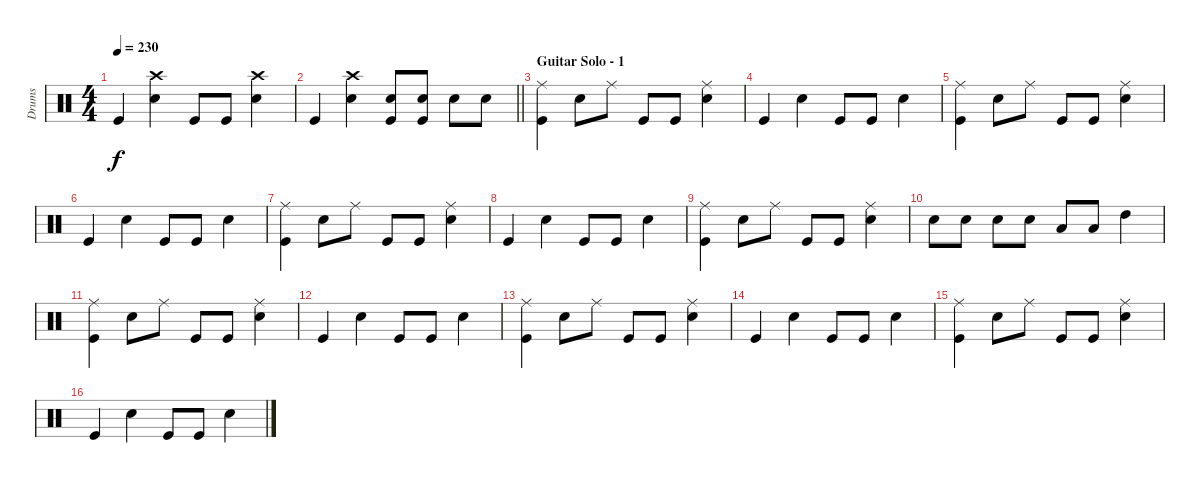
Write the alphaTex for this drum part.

\track ("Drums" "Drums") {instrument percussion}
\staff {score}
\articulation defaults
\ts (4 4)
\tempo 230
\clef neutral
\ks c "Kick (hit)".4{dy f}
("Crash high (hit)" "Snare (hit) 2").4 "Kick (hit)".8 "Kick (hit)".8 ("Crash high (hit)" "Snare (hit) 2").4 |
\barLineRight lightlight "Kick (hit)".4
("Crash high (hit)" "Snare (hit) 2").4 ("Snare (hit) 2" "Kick (hit)").8 ("Snare (hit) 2" "Kick (hit)").8 "Snare (hit) 2".8 "Snare (hit) 2".8 |
\section ("" "Guitar Solo - 1")
("Ride (middle)" "Kick (hit)").4 "Snare (hit) 2".8 "Ride (middle)".8 "Kick (hit)".8 "Kick (hit)".8 ("Ride (middle)" "Snare (hit) 2").4 |
"Kick (hit)".4 "Snare (hit) 2".4 "Kick (hit)".8 "Kick (hit)".8 "Snare (hit) 2".4 |
("Ride (middle)" "Kick (hit)").4 "Snare (hit) 2".8 "Ride (middle)".8 "Kick (hit)".8 "Kick (hit)".8 ("Ride (middle)" "Snare (hit) 2").4 |
"Kick (hit)".4 "Snare (hit) 2".4 "Kick (hit)".8 "Kick (hit)".8 "Snare (hit) 2".4 |
("Ride (middle)" "Kick (hit)").4 "Snare (hit) 2".8 "Ride (middle)".8 "Kick (hit)".8 "Kick (hit)".8 ("Ride (middle)" "Snare (hit) 2").4 |
"Kick (hit)".4 "Snare (hit) 2".4 "Kick (hit)".8 "Kick (hit)".8 "Snare (hit) 2".4 |
("Ride (middle)" "Kick (hit)").4 "Snare (hit) 2".8 "Ride (middle)".8 "Kick (hit)".8 "Kick (hit)".8 ("Ride (middle)" "Snare (hit) 2").4 |
"Snare (hit) 2".8 "Snare (hit) 2".8 "Snare (hit) 2".8 "Snare (hit) 2".8 "Low Tom (hit)".8 "Low Tom (hit)".8 "High Tom (hit)".4 |
("Ride (middle)" "Kick (hit)").4 "Snare (hit) 2".8 "Ride (middle)".8 "Kick (hit)".8 "Kick (hit)".8 ("Ride (middle)" "Snare (hit) 2").4 |
"Kick (hit)".4 "Snare (hit) 2".4 "Kick (hit)".8 "Kick (hit)".8 "Snare (hit) 2".4 |
("Ride (middle)" "Kick (hit)").4 "Snare (hit) 2".8 "Ride (middle)".8 "Kick (hit)".8 "Kick (hit)".8 ("Ride (middle)" "Snare (hit) 2").4 |
"Kick (hit)".4 "Snare (hit) 2".4 "Kick (hit)".8 "Kick (hit)".8 "Snare (hit) 2".4 |
("Ride (middle)" "Kick (hit)").4 "Snare (hit) 2".8 "Ride (middle)".8 "Kick (hit)".8 "Kick (hit)".8 ("Ride (middle)" "Snare (hit) 2").4 |
"Kick (hit)".4 "Snare (hit) 2".4 "Kick (hit)".8 "Kick (hit)".8 "Snare (hit) 2".4
